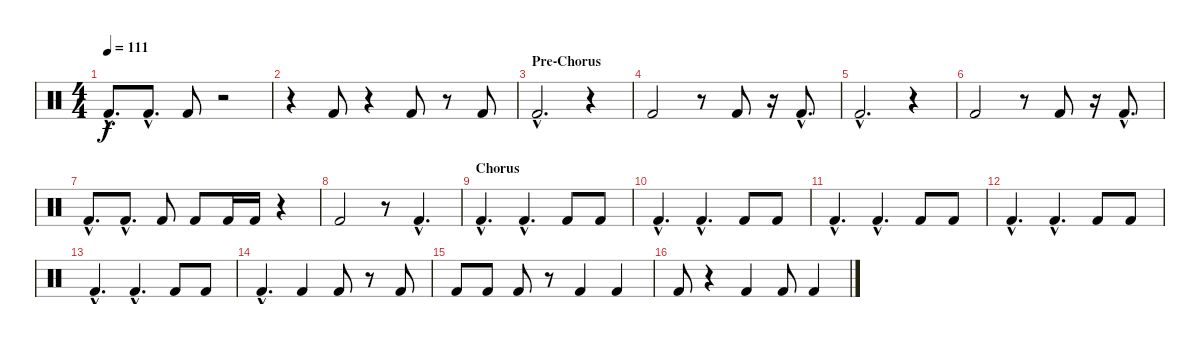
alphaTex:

\track "" {instrument percussion}
\staff {score}
\articulation defaults
\ts (4 4)
\tempo 111
\clef neutral
\ks c "Kick (hit) 2"{hac}.8{d dy f} "Kick (hit) 2"{hac}.8{d} "Kick (hit) 2".8
r.2 |
r.4 "Kick (hit) 2".8 r.4 "Kick (hit) 2".8 r.8 "Kick (hit) 2".8 |
\section ("" "Pre-Chorus")
"Kick (hit) 2"{hac}.2{d} r.4 |
"Kick (hit) 2".2 r.8 "Kick (hit) 2".8 r.16 "Kick (hit) 2"{hac}.8{d} |
"Kick (hit) 2"{hac}.2{d} r.4 |
"Kick (hit) 2".2 r.8 "Kick (hit) 2".8 r.16 "Kick (hit) 2"{hac}.8{d} |
"Kick (hit) 2"{hac}.8{d} "Kick (hit) 2"{hac}.8{d} "Kick (hit) 2".8 "Kick (hit) 2".8 "Kick (hit) 2".16 "Kick (hit) 2".16 r.4 |
"Kick (hit) 2".2 r.8 "Kick (hit) 2"{hac}.4{d} |
\section ("" "Chorus")
"Kick (hit) 2"{hac}.4{d} "Kick (hit) 2"{hac}.4{d} "Kick (hit) 2".8 "Kick (hit) 2".8 |
"Kick (hit) 2"{hac}.4{d} "Kick (hit) 2"{hac}.4{d} "Kick (hit) 2".8 "Kick (hit) 2".8 |
"Kick (hit) 2"{hac}.4{d} "Kick (hit) 2"{hac}.4{d} "Kick (hit) 2".8 "Kick (hit) 2".8 |
"Kick (hit) 2"{hac}.4{d} "Kick (hit) 2"{hac}.4{d} "Kick (hit) 2".8 "Kick (hit) 2".8 |
"Kick (hit) 2"{hac}.4{d} "Kick (hit) 2"{hac}.4{d} "Kick (hit) 2".8 "Kick (hit) 2".8 |
"Kick (hit) 2"{hac}.4{d} "Kick (hit) 2".4 "Kick (hit) 2".8 r.8 "Kick (hit) 2".8 |
"Kick (hit) 2".8 "Kick (hit) 2".8 "Kick (hit) 2".8 r.8 "Kick (hit) 2".4 "Kick (hit) 2".4 |
"Kick (hit) 2".8 r.4 "Kick (hit) 2".4 "Kick (hit) 2".8 "Kick (hit) 2".4
